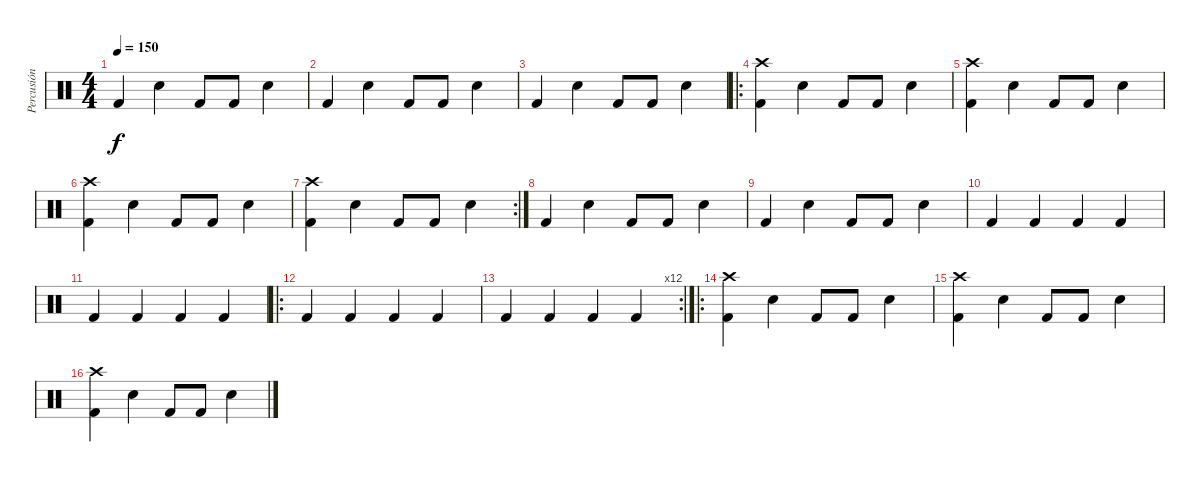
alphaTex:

\track ("Percusión" "Percusión") {instrument percussion}
\staff {score}
\articulation defaults
\ts (4 4)
\tempo 150
\clef neutral
\ks c "Kick (hit) 2".4{dy f} "Snare (hit) 2".4 "Kick (hit) 2".8 "Kick (hit) 2".8 "Snare (hit) 2".4
|
"Kick (hit) 2".4 "Snare (hit) 2".4 "Kick (hit) 2".8 "Kick (hit) 2".8 "Snare (hit) 2".4 |
"Kick (hit) 2".4 "Snare (hit) 2".4 "Kick (hit) 2".8 "Kick (hit) 2".8 "Snare (hit) 2".4 |
\ro
("Kick (hit) 2" "Crash high (hit)").4 "Snare (hit) 2".4 "Kick (hit) 2".8 "Kick (hit) 2".8 "Snare (hit) 2".4 |
("Kick (hit) 2" "Crash high (hit)").4 "Snare (hit) 2".4 "Kick (hit) 2".8 "Kick (hit) 2".8 "Snare (hit) 2".4 |
("Kick (hit) 2" "Crash high (hit)").4 "Snare (hit) 2".4 "Kick (hit) 2".8 "Kick (hit) 2".8 "Snare (hit) 2".4 |
\rc 2
("Kick (hit) 2" "Crash high (hit)").4 "Snare (hit) 2".4 "Kick (hit) 2".8 "Kick (hit) 2".8 "Snare (hit) 2".4 |
"Kick (hit) 2".4 "Snare (hit) 2".4 "Kick (hit) 2".8 "Kick (hit) 2".8 "Snare (hit) 2".4 |
"Kick (hit) 2".4 "Snare (hit) 2".4 "Kick (hit) 2".8 "Kick (hit) 2".8 "Snare (hit) 2".4 |
"Kick (hit) 2".4 "Kick (hit) 2".4 "Kick (hit) 2".4 "Kick (hit) 2".4 |
"Kick (hit) 2".4 "Kick (hit) 2".4 "Kick (hit) 2".4 "Kick (hit) 2".4 |
\ro "Kick (hit) 2".4 "Kick (hit) 2".4 "Kick (hit) 2".4 "Kick (hit) 2".4
|
\rc 12 "Kick (hit) 2".4 "Kick (hit) 2".4 "Kick (hit) 2".4 "Kick (hit) 2".4
|
\ro
("Kick (hit) 2" "Crash high (hit)").4 "Snare (hit) 2".4 "Kick (hit) 2".8 "Kick (hit) 2".8 "Snare (hit) 2".4 |
("Kick (hit) 2" "Crash high (hit)").4 "Snare (hit) 2".4 "Kick (hit) 2".8 "Kick (hit) 2".8 "Snare (hit) 2".4 |
("Kick (hit) 2" "Crash high (hit)").4 "Snare (hit) 2".4 "Kick (hit) 2".8 "Kick (hit) 2".8 "Snare (hit) 2".4
